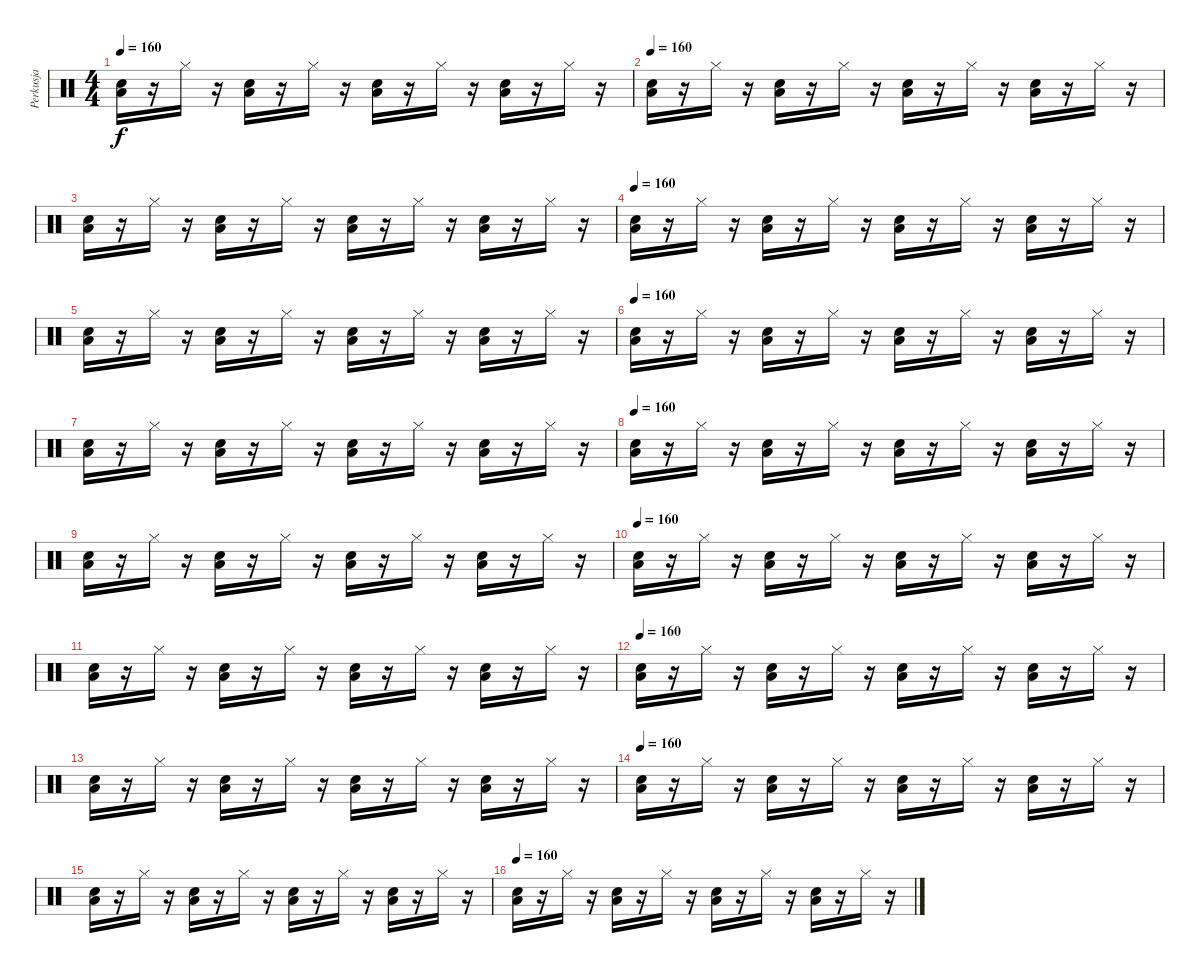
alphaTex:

\track ("Perkusja" "Perkusja") {instrument percussion}
\staff {score}
\articulation defaults
\ts (4 4)
\tempo 160
\clef neutral
\ks c
("Snare (hit) 2" "Low Tom (hit)").16{dy f} r.16 "Hi-Hat (closed)".16 r.16 ("Snare (hit) 2" "Low Tom (hit)").16 r.16 "Hi-Hat (closed)".16 r.16 ("Snare (hit) 2" "Low Tom (hit)").16 r.16 "Hi-Hat (closed)".16 r.16 ("Snare (hit) 2" "Low Tom (hit)").16 r.16 "Hi-Hat (closed)".16 r.16 |
\tempo 160
("Snare (hit) 2" "Low Tom (hit)").16 r.16 "Hi-Hat (closed)".16 r.16 ("Snare (hit) 2" "Low Tom (hit)").16 r.16 "Hi-Hat (closed)".16 r.16 ("Snare (hit) 2" "Low Tom (hit)").16 r.16 "Hi-Hat (closed)".16 r.16 ("Snare (hit) 2" "Low Tom (hit)").16 r.16 "Hi-Hat (closed)".16 r.16 |
("Snare (hit) 2" "Low Tom (hit)").16 r.16 "Hi-Hat (closed)".16 r.16 ("Snare (hit) 2" "Low Tom (hit)").16 r.16 "Hi-Hat (closed)".16 r.16 ("Snare (hit) 2" "Low Tom (hit)").16 r.16 "Hi-Hat (closed)".16 r.16 ("Snare (hit) 2" "Low Tom (hit)").16 r.16 "Hi-Hat (closed)".16 r.16 |
\tempo 160
("Snare (hit) 2" "Low Tom (hit)").16 r.16 "Hi-Hat (closed)".16 r.16 ("Snare (hit) 2" "Low Tom (hit)").16 r.16 "Hi-Hat (closed)".16 r.16 ("Snare (hit) 2" "Low Tom (hit)").16 r.16 "Hi-Hat (closed)".16 r.16 ("Snare (hit) 2" "Low Tom (hit)").16 r.16 "Hi-Hat (closed)".16 r.16 |
("Snare (hit) 2" "Low Tom (hit)").16 r.16 "Hi-Hat (closed)".16 r.16 ("Snare (hit) 2" "Low Tom (hit)").16 r.16 "Hi-Hat (closed)".16 r.16 ("Snare (hit) 2" "Low Tom (hit)").16 r.16 "Hi-Hat (closed)".16 r.16 ("Snare (hit) 2" "Low Tom (hit)").16 r.16 "Hi-Hat (closed)".16 r.16 |
\tempo 160
("Snare (hit) 2" "Low Tom (hit)").16 r.16 "Hi-Hat (closed)".16 r.16 ("Snare (hit) 2" "Low Tom (hit)").16 r.16 "Hi-Hat (closed)".16 r.16 ("Snare (hit) 2" "Low Tom (hit)").16 r.16 "Hi-Hat (closed)".16 r.16 ("Snare (hit) 2" "Low Tom (hit)").16 r.16 "Hi-Hat (closed)".16 r.16 |
("Snare (hit) 2" "Low Tom (hit)").16 r.16 "Hi-Hat (closed)".16 r.16 ("Snare (hit) 2" "Low Tom (hit)").16 r.16 "Hi-Hat (closed)".16 r.16 ("Snare (hit) 2" "Low Tom (hit)").16 r.16 "Hi-Hat (closed)".16 r.16 ("Snare (hit) 2" "Low Tom (hit)").16 r.16 "Hi-Hat (closed)".16 r.16 |
\tempo 160
("Snare (hit) 2" "Low Tom (hit)").16 r.16 "Hi-Hat (closed)".16 r.16 ("Snare (hit) 2" "Low Tom (hit)").16 r.16 "Hi-Hat (closed)".16 r.16 ("Snare (hit) 2" "Low Tom (hit)").16 r.16 "Hi-Hat (closed)".16 r.16 ("Snare (hit) 2" "Low Tom (hit)").16 r.16 "Hi-Hat (closed)".16 r.16 |
("Snare (hit) 2" "Low Tom (hit)").16 r.16 "Hi-Hat (closed)".16 r.16 ("Snare (hit) 2" "Low Tom (hit)").16 r.16 "Hi-Hat (closed)".16 r.16 ("Snare (hit) 2" "Low Tom (hit)").16 r.16 "Hi-Hat (closed)".16 r.16 ("Snare (hit) 2" "Low Tom (hit)").16 r.16 "Hi-Hat (closed)".16 r.16 |
\tempo 160
("Snare (hit) 2" "Low Tom (hit)").16 r.16 "Hi-Hat (closed)".16 r.16 ("Snare (hit) 2" "Low Tom (hit)").16 r.16 "Hi-Hat (closed)".16 r.16 ("Snare (hit) 2" "Low Tom (hit)").16 r.16 "Hi-Hat (closed)".16 r.16 ("Snare (hit) 2" "Low Tom (hit)").16 r.16 "Hi-Hat (closed)".16 r.16 |
("Snare (hit) 2" "Low Tom (hit)").16 r.16 "Hi-Hat (closed)".16 r.16 ("Snare (hit) 2" "Low Tom (hit)").16 r.16 "Hi-Hat (closed)".16 r.16 ("Snare (hit) 2" "Low Tom (hit)").16 r.16 "Hi-Hat (closed)".16 r.16 ("Snare (hit) 2" "Low Tom (hit)").16 r.16 "Hi-Hat (closed)".16 r.16 |
\tempo 160
("Snare (hit) 2" "Low Tom (hit)").16 r.16 "Hi-Hat (closed)".16 r.16 ("Snare (hit) 2" "Low Tom (hit)").16 r.16 "Hi-Hat (closed)".16 r.16 ("Snare (hit) 2" "Low Tom (hit)").16 r.16 "Hi-Hat (closed)".16 r.16 ("Snare (hit) 2" "Low Tom (hit)").16 r.16 "Hi-Hat (closed)".16 r.16 |
("Snare (hit) 2" "Low Tom (hit)").16 r.16 "Hi-Hat (closed)".16 r.16 ("Snare (hit) 2" "Low Tom (hit)").16 r.16 "Hi-Hat (closed)".16 r.16 ("Snare (hit) 2" "Low Tom (hit)").16 r.16 "Hi-Hat (closed)".16 r.16 ("Snare (hit) 2" "Low Tom (hit)").16 r.16 "Hi-Hat (closed)".16 r.16 |
\tempo 160
("Snare (hit) 2" "Low Tom (hit)").16 r.16 "Hi-Hat (closed)".16 r.16 ("Snare (hit) 2" "Low Tom (hit)").16 r.16 "Hi-Hat (closed)".16 r.16 ("Snare (hit) 2" "Low Tom (hit)").16 r.16 "Hi-Hat (closed)".16 r.16 ("Snare (hit) 2" "Low Tom (hit)").16 r.16 "Hi-Hat (closed)".16 r.16 |
("Snare (hit) 2" "Low Tom (hit)").16 r.16 "Hi-Hat (closed)".16 r.16 ("Snare (hit) 2" "Low Tom (hit)").16 r.16 "Hi-Hat (closed)".16 r.16 ("Snare (hit) 2" "Low Tom (hit)").16 r.16 "Hi-Hat (closed)".16 r.16 ("Snare (hit) 2" "Low Tom (hit)").16 r.16 "Hi-Hat (closed)".16 r.16 |
\tempo 160
("Snare (hit) 2" "Low Tom (hit)").16 r.16 "Hi-Hat (closed)".16 r.16 ("Snare (hit) 2" "Low Tom (hit)").16 r.16 "Hi-Hat (closed)".16 r.16 ("Snare (hit) 2" "Low Tom (hit)").16 r.16 "Hi-Hat (closed)".16 r.16 ("Snare (hit) 2" "Low Tom (hit)").16 r.16 "Hi-Hat (closed)".16 r.16
